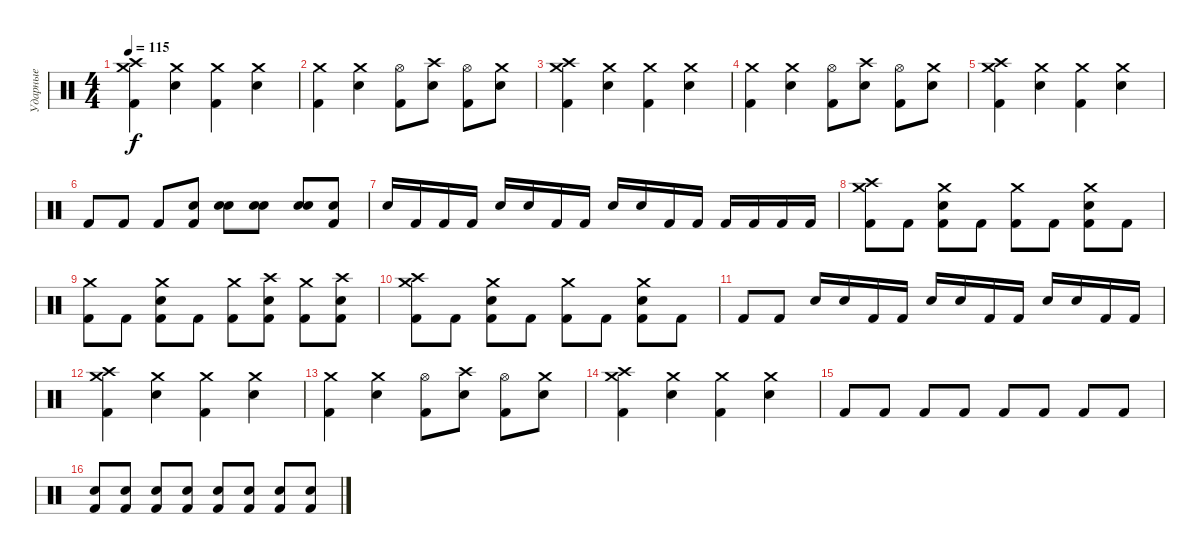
\track ("Ударные" "Ударные") {instrument percussion}
\staff {score}
\articulation defaults
\ts (4 4)
\tempo 115
\clef neutral
\ks c
("Crash medium (hit)" "Crash high (hit)" "Kick (hit) 2").4{dy f} ("Snare (hit) 2" "Crash medium (hit)").4 ("Crash medium (hit)" "Kick (hit) 2").4 ("Snare (hit) 2" "Crash medium (hit)").4 |
("Crash medium (hit)" "Kick (hit) 2").4 ("Snare (hit) 2" "Crash medium (hit)").4 ("Hi-Hat (open)" "Kick (hit) 2").8 ("Crash high (hit)" "Snare (hit) 2").8 ("Hi-Hat (open)" "Kick (hit) 2").8 ("Crash medium (hit)" "Snare (hit) 2").8 |
("Crash medium (hit)" "Crash high (hit)" "Kick (hit) 2").4 ("Snare (hit) 2" "Crash medium (hit)").4 ("Crash medium (hit)" "Kick (hit) 2").4 ("Snare (hit) 2" "Crash medium (hit)").4 |
("Crash medium (hit)" "Kick (hit) 2").4 ("Snare (hit) 2" "Crash medium (hit)").4 ("Hi-Hat (open)" "Kick (hit) 2").8 ("Crash high (hit)" "Snare (hit) 2").8 ("Hi-Hat (open)" "Kick (hit) 2").8 ("Crash medium (hit)" "Snare (hit) 2").8 |
("Crash medium (hit)" "Crash high (hit)" "Kick (hit) 2").4 ("Snare (hit) 2" "Crash medium (hit)").4 ("Crash medium (hit)" "Kick (hit) 2").4 ("Snare (hit) 2" "Crash medium (hit)").4 |
"Kick (hit) 2".8 "Kick (hit) 2".8 "Kick (hit) 2".8 ("Snare (hit) 2" "Kick (hit) 2").8 ("Snare (hit) 2" "Snare (hit) 2").8 ("Snare (hit) 2" "Snare (hit) 2").8 ("Snare (hit) 2" "Snare (hit) 2").8 ("Snare (hit) 2" "Kick (hit) 2").8 |
"Snare (hit) 2".16 "Kick (hit) 2".16 "Kick (hit) 2".16 "Kick (hit) 2".16 "Snare (hit) 2".16 "Snare (hit) 2".16 "Kick (hit) 2".16 "Kick (hit) 2".16 "Snare (hit) 2".16 "Snare (hit) 2".16 "Kick (hit) 2".16 "Kick (hit) 2".16 "Kick (hit) 2".16 "Kick (hit) 2".16 "Kick (hit) 2".16 "Kick (hit) 2".16 |
("Crash medium (hit)" "Crash high (hit)" "Kick (hit) 2").8 "Kick (hit) 2".8 ("Snare (hit) 2" "Crash medium (hit)" "Kick (hit) 2").8 "Kick (hit) 2".8 ("Crash medium (hit)" "Kick (hit) 2").8 "Kick (hit) 2".8 ("Snare (hit) 2" "Crash medium (hit)" "Kick (hit) 2").8 "Kick (hit) 2".8 |
("Crash medium (hit)" "Kick (hit) 2").8 "Kick (hit) 2".8 ("Snare (hit) 2" "Crash medium (hit)" "Kick (hit) 2").8 "Kick (hit) 2".8 ("Crash medium (hit)" "Kick (hit) 2").8 ("Crash high (hit)" "Snare (hit) 2" "Kick (hit) 2").8 ("Crash medium (hit)" "Kick (hit) 2").8 ("Crash high (hit)" "Snare (hit) 2" "Kick (hit) 2").8 |
("Crash medium (hit)" "Crash high (hit)" "Kick (hit) 2").8 "Kick (hit) 2".8 ("Snare (hit) 2" "Crash medium (hit)" "Kick (hit) 2").8 "Kick (hit) 2".8 ("Crash medium (hit)" "Kick (hit) 2").8 "Kick (hit) 2".8 ("Snare (hit) 2" "Crash medium (hit)" "Kick (hit) 2").8 "Kick (hit) 2".8 |
"Kick (hit) 2".8 "Kick (hit) 2".8 "Snare (hit) 2".16 "Snare (hit) 2".16 "Kick (hit) 2".16 "Kick (hit) 2".16 "Snare (hit) 2".16 "Snare (hit) 2".16 "Kick (hit) 2".16 "Kick (hit) 2".16 "Snare (hit) 2".16 "Snare (hit) 2".16 "Kick (hit) 2".16 "Kick (hit) 2".16 |
("Crash medium (hit)" "Crash high (hit)" "Kick (hit) 2").4 ("Snare (hit) 2" "Crash medium (hit)").4 ("Crash medium (hit)" "Kick (hit) 2").4 ("Snare (hit) 2" "Crash medium (hit)").4 |
("Crash medium (hit)" "Kick (hit) 2").4 ("Snare (hit) 2" "Crash medium (hit)").4 ("Hi-Hat (open)" "Kick (hit) 2").8 ("Crash high (hit)" "Snare (hit) 2").8 ("Hi-Hat (open)" "Kick (hit) 2").8 ("Crash medium (hit)" "Snare (hit) 2").8 |
("Crash medium (hit)" "Crash high (hit)" "Kick (hit) 2").4 ("Snare (hit) 2" "Crash medium (hit)").4 ("Crash medium (hit)" "Kick (hit) 2").4 ("Snare (hit) 2" "Crash medium (hit)").4 |
"Kick (hit) 2".8 "Kick (hit) 2".8 "Kick (hit) 2".8 "Kick (hit) 2".8 "Kick (hit) 2".8 "Kick (hit) 2".8 "Kick (hit) 2".8 "Kick (hit) 2".8 |
("Snare (hit) 2" "Kick (hit) 2").8 ("Snare (hit) 2" "Kick (hit) 2").8 ("Snare (hit) 2" "Kick (hit) 2").8 ("Snare (hit) 2" "Kick (hit) 2").8 ("Snare (hit) 2" "Kick (hit) 2").8 ("Snare (hit) 2" "Kick (hit) 2").8 ("Snare (hit) 2" "Kick (hit) 2").8 ("Snare (hit) 2" "Kick (hit) 2").8
